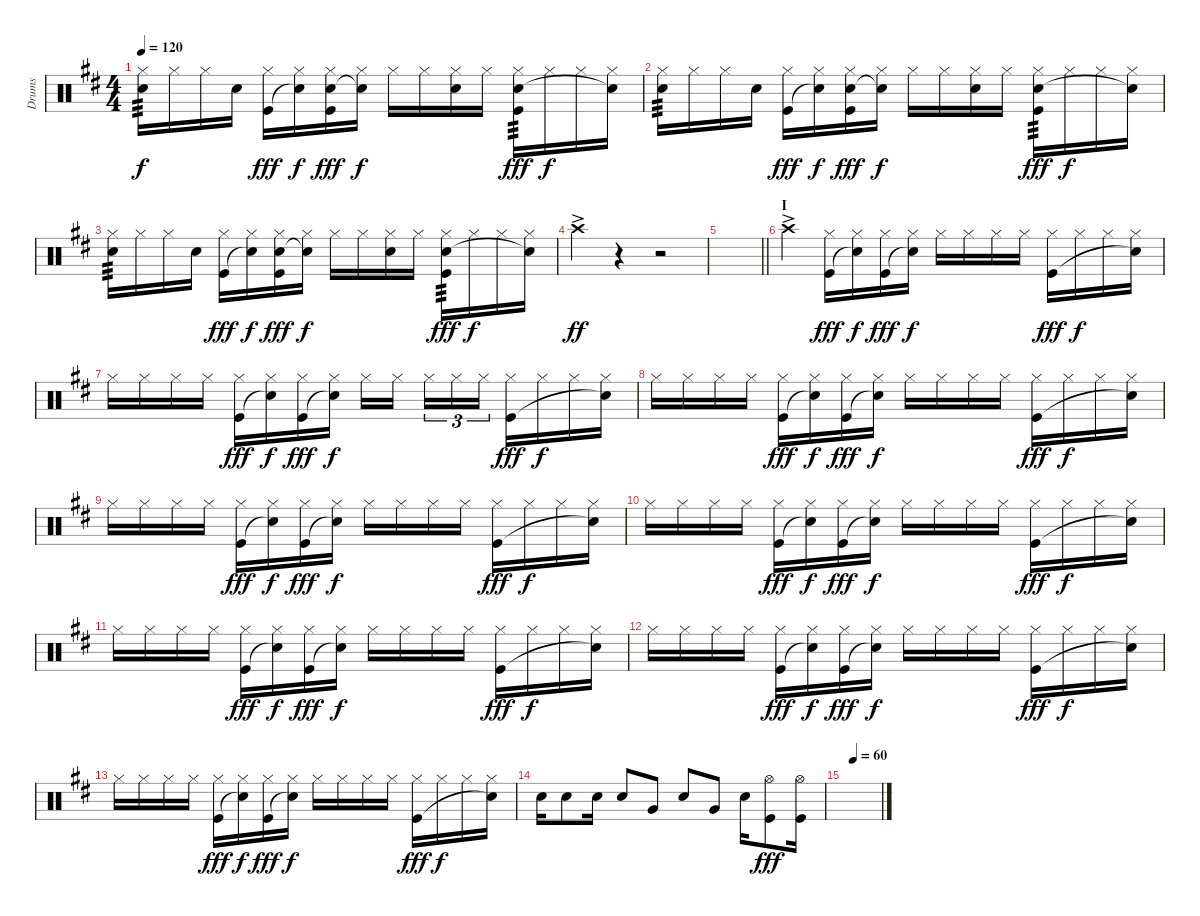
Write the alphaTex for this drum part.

\track ("Drums" "Drums") {instrument percussion}
\staff {score}
\articulation defaults
\ts (4 4)
\tempo 120
\clef neutral
\ks d
("Hi-Hat (closed)" "Snare (hit) 2").16{tp 3 dy f} "Hi-Hat (closed)".16 "Hi-Hat (closed)".16 "Snare (hit) 2".16 ("Hi-Hat (closed)" "Kick (hit)").16{dy fff} ("Hi-Hat (closed)" "Snare (hit)"{t}).16{dy f} ("Hi-Hat (closed)" "Snare (hit) 2" "Kick (hit)").16{dy fff} ("Hi-Hat (closed)" "Snare (hit)"{t}).16{dy f} "Hi-Hat (closed)".16 "Hi-Hat (closed)".16 ("Hi-Hat (closed)" "Snare (hit) 2").16 "Hi-Hat (closed)".16 ("Hi-Hat (closed)" "Snare (hit) 2" "Kick (hit)").16{tp 3 dy fff} "Hi-Hat (closed)".16{dy f} "Hi-Hat (closed)".16 ("Hi-Hat (closed)" "Snare (hit)"{t}).16 |
("Hi-Hat (closed)" "Snare (hit) 2").16{tp 3} "Hi-Hat (closed)".16 "Hi-Hat (closed)".16 "Snare (hit) 2".16 ("Hi-Hat (closed)" "Kick (hit)").16{dy fff} ("Hi-Hat (closed)" "Snare (hit)"{t}).16{dy f} ("Hi-Hat (closed)" "Snare (hit) 2" "Kick (hit)").16{dy fff} ("Hi-Hat (closed)" "Snare (hit)"{t}).16{dy f} "Hi-Hat (closed)".16 "Hi-Hat (closed)".16 ("Hi-Hat (closed)" "Snare (hit) 2").16 "Hi-Hat (closed)".16 ("Hi-Hat (closed)" "Snare (hit) 2" "Kick (hit)").16{tp 3 dy fff} "Hi-Hat (closed)".16{dy f} "Hi-Hat (closed)".16 ("Hi-Hat (closed)" "Snare (hit)"{t}).16 |
("Hi-Hat (closed)" "Snare (hit) 2").16{tp 3} "Hi-Hat (closed)".16 "Hi-Hat (closed)".16 "Snare (hit) 2".16 ("Hi-Hat (closed)" "Kick (hit)").16{dy fff} ("Hi-Hat (closed)" "Snare (hit)"{t}).16{dy f} ("Hi-Hat (closed)" "Snare (hit) 2" "Kick (hit)").16{dy fff} ("Hi-Hat (closed)" "Snare (hit)"{t}).16{dy f} "Hi-Hat (closed)".16 "Hi-Hat (closed)".16 ("Hi-Hat (closed)" "Snare (hit) 2").16 "Hi-Hat (closed)".16 ("Hi-Hat (closed)" "Snare (hit) 2" "Kick (hit)").16{tp 3 dy fff} "Hi-Hat (closed)".16{dy f} "Hi-Hat (closed)".16 ("Hi-Hat (closed)" "Snare (hit)"{t}).16 |
"Crash high (hit)"{ac}.4{dy ff} r.4 r.2 |
\barLineRight lightlight
|
\section ("" "I")
"Crash high (hit)"{ac}.4 ("Hi-Hat (closed)" "Kick (hit)").16{dy fff} ("Hi-Hat (closed)" "Snare (hit)"{t}).16{dy f} ("Hi-Hat (closed)" "Kick (hit)").16{dy fff} ("Hi-Hat (closed)" "Snare (hit)"{t}).16{dy f} "Hi-Hat (closed)".16 "Hi-Hat (closed)".16 "Hi-Hat (closed)".16 "Hi-Hat (closed)".16 ("Hi-Hat (closed)" "Kick (hit)").16{dy fff} "Hi-Hat (closed)".16{dy f} "Hi-Hat (closed)".16 ("Hi-Hat (closed)" "Snare (hit)"{t}).16 |
"Hi-Hat (closed)".16 "Hi-Hat (closed)".16 "Hi-Hat (closed)".16 "Hi-Hat (closed)".16 ("Hi-Hat (closed)" "Kick (hit)").16{dy fff} ("Hi-Hat (closed)" "Snare (hit)"{t}).16{dy f} ("Hi-Hat (closed)" "Kick (hit)").16{dy fff} ("Hi-Hat (closed)" "Snare (hit)"{t}).16{dy f} "Hi-Hat (closed)".16 "Hi-Hat (closed)".16{beam splitsecondary} "Hi-Hat (closed)".16{tu (3 2)} "Hi-Hat (closed)".16{tu (3 2)} "Hi-Hat (closed)".16{tu (3 2)} ("Hi-Hat (closed)" "Kick (hit)").16{dy fff} "Hi-Hat (closed)".16{dy f} "Hi-Hat (closed)".16 ("Hi-Hat (closed)" "Snare (hit)"{t}).16 |
"Hi-Hat (closed)".16 "Hi-Hat (closed)".16 "Hi-Hat (closed)".16 "Hi-Hat (closed)".16 ("Hi-Hat (closed)" "Kick (hit)").16{dy fff} ("Hi-Hat (closed)" "Snare (hit)"{t}).16{dy f} ("Hi-Hat (closed)" "Kick (hit)").16{dy fff} ("Hi-Hat (closed)" "Snare (hit)"{t}).16{dy f} "Hi-Hat (closed)".16 "Hi-Hat (closed)".16 "Hi-Hat (closed)".16 "Hi-Hat (closed)".16 ("Hi-Hat (closed)" "Kick (hit)").16{dy fff} "Hi-Hat (closed)".16{dy f} "Hi-Hat (closed)".16 ("Hi-Hat (closed)" "Snare (hit)"{t}).16 |
"Hi-Hat (closed)".16 "Hi-Hat (closed)".16 "Hi-Hat (closed)".16 "Hi-Hat (closed)".16 ("Hi-Hat (closed)" "Kick (hit)").16{dy fff} ("Hi-Hat (closed)" "Snare (hit)"{t}).16{dy f} ("Hi-Hat (closed)" "Kick (hit)").16{dy fff} ("Hi-Hat (closed)" "Snare (hit)"{t}).16{dy f} "Hi-Hat (closed)".16 "Hi-Hat (closed)".16 "Hi-Hat (closed)".16 "Hi-Hat (closed)".16 ("Hi-Hat (closed)" "Kick (hit)").16{dy fff} "Hi-Hat (closed)".16{dy f} "Hi-Hat (closed)".16 ("Hi-Hat (closed)" "Snare (hit)"{t}).16 |
"Hi-Hat (closed)".16 "Hi-Hat (closed)".16 "Hi-Hat (closed)".16 "Hi-Hat (closed)".16 ("Hi-Hat (closed)" "Kick (hit)").16{dy fff} ("Hi-Hat (closed)" "Snare (hit)"{t}).16{dy f} ("Hi-Hat (closed)" "Kick (hit)").16{dy fff} ("Hi-Hat (closed)" "Snare (hit)"{t}).16{dy f} "Hi-Hat (closed)".16 "Hi-Hat (closed)".16 "Hi-Hat (closed)".16 "Hi-Hat (closed)".16 ("Hi-Hat (closed)" "Kick (hit)").16{dy fff} "Hi-Hat (closed)".16{dy f} "Hi-Hat (closed)".16 ("Hi-Hat (closed)" "Snare (hit)"{t}).16 |
"Hi-Hat (closed)".16 "Hi-Hat (closed)".16 "Hi-Hat (closed)".16 "Hi-Hat (closed)".16 ("Hi-Hat (closed)" "Kick (hit)").16{dy fff} ("Hi-Hat (closed)" "Snare (hit)"{t}).16{dy f} ("Hi-Hat (closed)" "Kick (hit)").16{dy fff} ("Hi-Hat (closed)" "Snare (hit)"{t}).16{dy f} "Hi-Hat (closed)".16 "Hi-Hat (closed)".16 "Hi-Hat (closed)".16 "Hi-Hat (closed)".16 ("Hi-Hat (closed)" "Kick (hit)").16{dy fff} "Hi-Hat (closed)".16{dy f} "Hi-Hat (closed)".16 ("Hi-Hat (closed)" "Snare (hit)"{t}).16 |
"Hi-Hat (closed)".16 "Hi-Hat (closed)".16 "Hi-Hat (closed)".16 "Hi-Hat (closed)".16 ("Hi-Hat (closed)" "Kick (hit)").16{dy fff} ("Hi-Hat (closed)" "Snare (hit)"{t}).16{dy f} ("Hi-Hat (closed)" "Kick (hit)").16{dy fff} ("Hi-Hat (closed)" "Snare (hit)"{t}).16{dy f} "Hi-Hat (closed)".16 "Hi-Hat (closed)".16 "Hi-Hat (closed)".16 "Hi-Hat (closed)".16 ("Hi-Hat (closed)" "Kick (hit)").16{dy fff} "Hi-Hat (closed)".16{dy f} "Hi-Hat (closed)".16 ("Hi-Hat (closed)" "Snare (hit)"{t}).16 |
"Hi-Hat (closed)".16 "Hi-Hat (closed)".16 "Hi-Hat (closed)".16 "Hi-Hat (closed)".16 ("Hi-Hat (closed)" "Kick (hit)").16{dy fff} ("Hi-Hat (closed)" "Snare (hit)"{t}).16{dy f} ("Hi-Hat (closed)" "Kick (hit)").16{dy fff} ("Hi-Hat (closed)" "Snare (hit)"{t}).16{dy f} "Hi-Hat (closed)".16 "Hi-Hat (closed)".16 "Hi-Hat (closed)".16 "Hi-Hat (closed)".16 ("Hi-Hat (closed)" "Kick (hit)").16{dy fff volume 12} "Hi-Hat (closed)".16{dy f} "Hi-Hat (closed)".16 ("Hi-Hat (closed)" "Snare (hit)"{t}).16 |
"Snare (hit) 2".16 "Snare (hit) 2".8 "Snare (hit) 2".16 "Snare (hit) 2".8 "Very Low Tom (hit)".8 "Snare (hit) 2".8 "Very Low Tom (hit)".8 "Snare (hit) 2".16 ("Hi-Hat (open)" "Kick (hit)").8{dy fff} ("Hi-Hat (open)" "Kick (hit)").16 |
\tempo (60 0.25)
